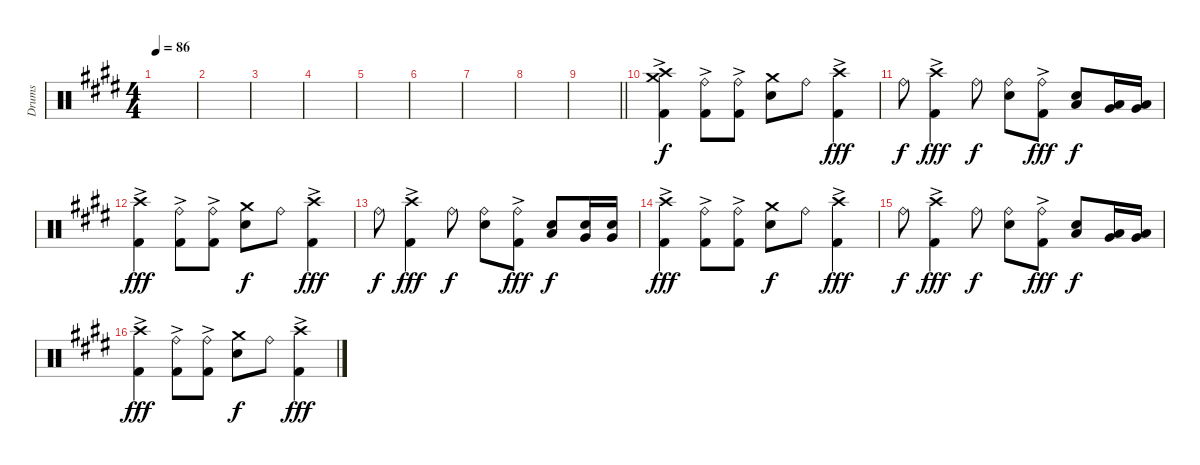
\track ("Drums" "Drums") {instrument percussion}
\staff {score}
\articulation defaults
\ts (4 4)
\tempo 86
\clef neutral
\ks c#minor
|
|
|
|
|
|
|
|
\barLineRight lightlight
|
("Crash high (hit)" "Crash medium (hit)" "Kick (hit) 2"{ac}).4 ("Ride (bell)" "Kick (hit) 2"{ac}).8 ("Ride (bell)" "Kick (hit) 2"{ac}).8 ("Crash medium (hit)" "Snare (hit) 2").8{dy f} "Ride (bell)".8 ("Crash high (hit)" "Kick (hit) 2"{ac}).4{dy fff} |
"Ride (bell)".8{dy f} ("Crash high (hit)" "Kick (hit) 2"{ac}).4{dy fff} "Ride (bell)".8{dy f} ("Ride (bell)" "Snare (hit) 2").8 ("Ride (bell)" "Kick (hit) 2"{ac}).8{dy fff} ("Snare (hit) 2" "Low Tom (hit)").8{dy f} ("Low Tom (hit)" "Very Low Tom (hit)").16 ("Low Tom (hit)" "Very Low Tom (hit)").16 |
("Crash high (hit)" "Kick (hit) 2"{ac}).4{dy fff} ("Ride (bell)" "Kick (hit) 2"{ac}).8 ("Ride (bell)" "Kick (hit) 2"{ac}).8 ("Crash medium (hit)" "Snare (hit) 2").8{dy f} "Ride (bell)".8 ("Crash high (hit)" "Kick (hit) 2"{ac}).4{dy fff} |
"Ride (bell)".8{dy f} ("Crash high (hit)" "Kick (hit) 2"{ac}).4{dy fff} "Ride (bell)".8{dy f} ("Ride (bell)" "Snare (hit) 2").8 ("Ride (bell)" "Kick (hit) 2"{ac}).8{dy fff} ("Snare (hit) 2" "Low Tom (hit)").8{dy f} ("Snare (hit) 2" "Very Low Tom (hit)").16 ("Snare (hit) 2" "Very Low Tom (hit)").16 |
("Crash high (hit)" "Kick (hit) 2"{ac}).4{dy fff} ("Ride (bell)" "Kick (hit) 2"{ac}).8 ("Ride (bell)" "Kick (hit) 2"{ac}).8 ("Crash medium (hit)" "Snare (hit) 2").8{dy f} "Ride (bell)".8 ("Crash high (hit)" "Kick (hit) 2"{ac}).4{dy fff} |
"Ride (bell)".8{dy f} ("Crash high (hit)" "Kick (hit) 2"{ac}).4{dy fff} "Ride (bell)".8{dy f} ("Ride (bell)" "Snare (hit) 2").8 ("Ride (bell)" "Kick (hit) 2"{ac}).8{dy fff} ("Snare (hit) 2" "Low Tom (hit)").8{dy f} ("Low Tom (hit)" "Very Low Tom (hit)").16 ("Low Tom (hit)" "Very Low Tom (hit)").16 |
("Crash high (hit)" "Kick (hit) 2"{ac}).4{dy fff} ("Ride (bell)" "Kick (hit) 2"{ac}).8 ("Ride (bell)" "Kick (hit) 2"{ac}).8 ("Crash medium (hit)" "Snare (hit) 2").8{dy f} "Ride (bell)".8 ("Crash high (hit)" "Kick (hit) 2"{ac}).4{dy fff}
